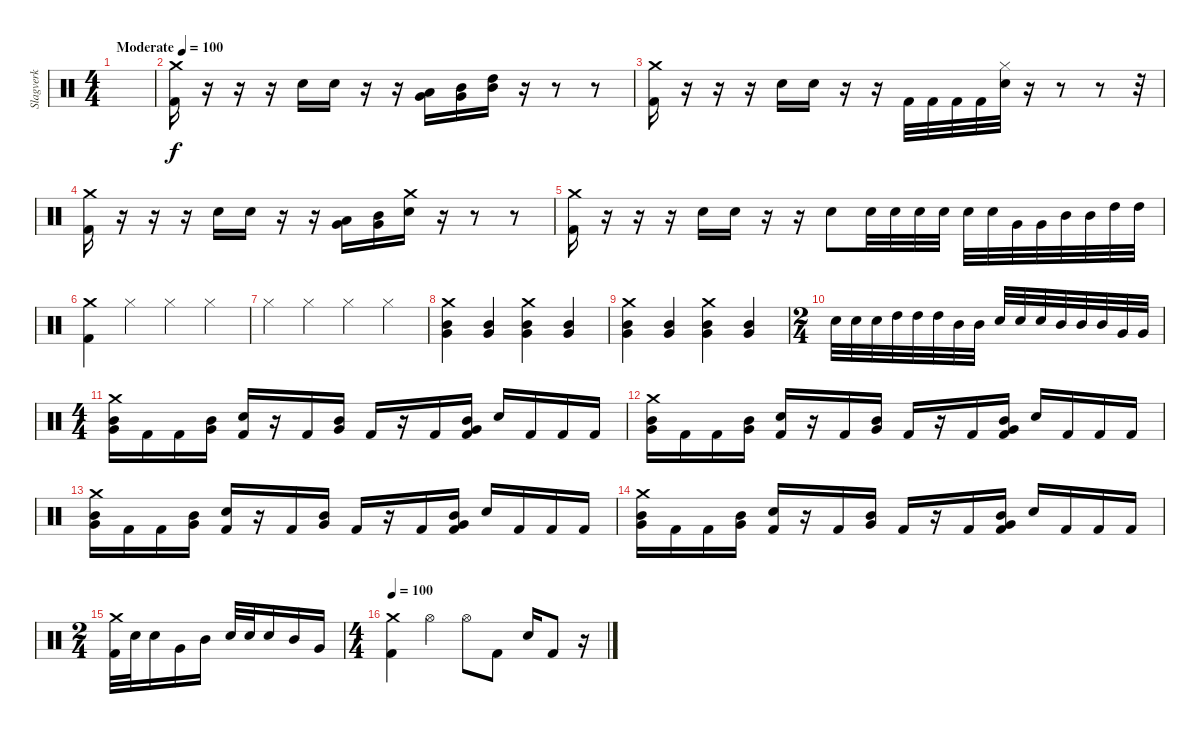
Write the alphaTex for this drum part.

\track ("Slagverk" "Slagverk") {instrument percussion}
\staff {score}
\articulation defaults
\ts (4 4)
\tempo (100 "Moderate")
\clef neutral
\ks c
|
("Crash medium (hit)" "Kick (hit) 2").16 r.16 r.16 r.16 "Electric Snare (hit)".16 "Electric Snare (hit)".16 r.16 r.16 ("Very Low Tom (hit)" "Low Floor Tom (hit)").16 ("Mid Tom (hit)" "Very Low Tom (hit)").16 ("High Tom (hit)" "Mid Tom (hit)").16 r.16 r.8 r.8 |
("Crash medium (hit)" "Kick (hit) 2").16 r.16 r.16 r.16 "Electric Snare (hit)".16 "Electric Snare (hit)".16 r.16 r.16 "Kick (hit) 2".32 "Kick (hit) 2".32 "Kick (hit) 2".32 "Kick (hit) 2".32 ("Hi-Hat (closed)" "Electric Snare (hit)").32 r.16 r.8 r.8 r.32 |
("Crash medium (hit)" "Kick (hit) 2").16 r.16 r.16 r.16 "Electric Snare (hit)".16 "Electric Snare (hit)".16 r.16 r.16 ("Very Low Tom (hit)" "Low Floor Tom (hit)").16 ("Mid Tom (hit)" "Very Low Tom (hit)").16 ("Crash medium (hit)" "Electric Snare (hit)").16 r.16 r.8 r.8 |
("Crash medium (hit)" "Kick (hit) 2").16 r.16 r.16 r.16 "Electric Snare (hit)".16 "Electric Snare (hit)".16 r.16 r.16 "Electric Snare (hit)".8 "Electric Snare (hit)".32 "Electric Snare (hit)".32 "Electric Snare (hit)".32 "Electric Snare (hit)".32 "Electric Snare (hit)".32 "Electric Snare (hit)".32 "Very Low Tom (hit)".32 "Very Low Tom (hit)".32 "Mid Tom (hit)".32 "Mid Tom (hit)".32 "High Tom (hit)".32 "High Tom (hit)".32 |
("Crash medium (hit)" "Kick (hit) 2").4 "Hi-Hat (closed)".4 "Hi-Hat (closed)".4 "Hi-Hat (closed)".4 |
"Hi-Hat (closed)".4 "Hi-Hat (closed)".4 "Hi-Hat (closed)".4 "Hi-Hat (closed)".4 |
("Crash medium (hit)" "Mid Tom (hit)" "Very Low Tom (hit)").4 ("Mid Tom (hit)" "Very Low Tom (hit)").4 ("Crash medium (hit)" "Mid Tom (hit)" "Very Low Tom (hit)").4 ("Mid Tom (hit)" "Very Low Tom (hit)").4 |
("Crash medium (hit)" "Mid Tom (hit)" "Very Low Tom (hit)").4 ("Mid Tom (hit)" "Very Low Tom (hit)").4 ("Crash medium (hit)" "Mid Tom (hit)" "Very Low Tom (hit)").4 ("Mid Tom (hit)" "Very Low Tom (hit)").4 |
\ts (2 4)
"Electric Snare (hit)".32 "Electric Snare (hit)".32 "Electric Snare (hit)".32 "High Tom (hit)".32 "High Tom (hit)".32 "High Tom (hit)".32 "Mid Tom (hit)".32 "Mid Tom (hit)".32 "Electric Snare (hit)".32 "Electric Snare (hit)".32 "Electric Snare (hit)".32 "Mid Tom (hit)".32 "Mid Tom (hit)".32 "Mid Tom (hit)".32 "Very Low Tom (hit)".32 "Very Low Tom (hit)".32 |
\ts (4 4)
("Crash medium (hit)" "Mid Tom (hit)" "Very Low Tom (hit)").16 "Kick (hit) 2".16 "Kick (hit) 2".16 ("Mid Tom (hit)" "Very Low Tom (hit)").16 ("Electric Snare (hit)" "Kick (hit) 2").16 r.16 "Kick (hit) 2".16 ("Mid Tom (hit)" "Very Low Tom (hit)").16 "Kick (hit) 2".16 r.16 "Kick (hit) 2".16 ("Mid Tom (hit)" "Very Low Tom (hit)" "Kick (hit) 2").16 "Electric Snare (hit)".16 "Kick (hit) 2".16 "Kick (hit) 2".16 "Kick (hit) 2".16 |
("Crash medium (hit)" "Mid Tom (hit)" "Very Low Tom (hit)").16 "Kick (hit) 2".16 "Kick (hit) 2".16 ("Mid Tom (hit)" "Very Low Tom (hit)").16 ("Electric Snare (hit)" "Kick (hit) 2").16 r.16 "Kick (hit) 2".16 ("Mid Tom (hit)" "Very Low Tom (hit)").16 "Kick (hit) 2".16 r.16 "Kick (hit) 2".16 ("Mid Tom (hit)" "Very Low Tom (hit)" "Kick (hit) 2").16 "Electric Snare (hit)".16 "Kick (hit) 2".16 "Kick (hit) 2".16 "Kick (hit) 2".16 |
("Crash medium (hit)" "Mid Tom (hit)" "Very Low Tom (hit)").16 "Kick (hit) 2".16 "Kick (hit) 2".16 ("Mid Tom (hit)" "Very Low Tom (hit)").16 ("Electric Snare (hit)" "Kick (hit) 2").16 r.16 "Kick (hit) 2".16 ("Mid Tom (hit)" "Very Low Tom (hit)").16 "Kick (hit) 2".16 r.16 "Kick (hit) 2".16 ("Mid Tom (hit)" "Very Low Tom (hit)" "Kick (hit) 2").16 "Electric Snare (hit)".16 "Kick (hit) 2".16 "Kick (hit) 2".16 "Kick (hit) 2".16 |
("Crash medium (hit)" "Mid Tom (hit)" "Very Low Tom (hit)").16 "Kick (hit) 2".16 "Kick (hit) 2".16 ("Mid Tom (hit)" "Very Low Tom (hit)").16 ("Electric Snare (hit)" "Kick (hit) 2").16 r.16 "Kick (hit) 2".16 ("Mid Tom (hit)" "Very Low Tom (hit)").16 "Kick (hit) 2".16 r.16 "Kick (hit) 2".16 ("Mid Tom (hit)" "Very Low Tom (hit)" "Kick (hit) 2").16 "Electric Snare (hit)".16 "Kick (hit) 2".16 "Kick (hit) 2".16 "Kick (hit) 2".16 |
\ts (2 4)
("Crash medium (hit)" "Kick (hit) 2").32 "Electric Snare (hit)".32 "Electric Snare (hit)".16 "Very Low Tom (hit)".16 "Mid Tom (hit)".16 "Electric Snare (hit)".32 "Electric Snare (hit)".32 "Electric Snare (hit)".16 "Mid Tom (hit)".16 "Very Low Tom (hit)".16 |
\ts (4 4)
\tempo 100
("Crash medium (hit)" "Kick (hit) 2").4 "Hi-Hat (open)".4 "Hi-Hat (open)".8 "Kick (hit) 2".8 "Electric Snare (hit)".16 "Kick (hit) 2".8 r.16
